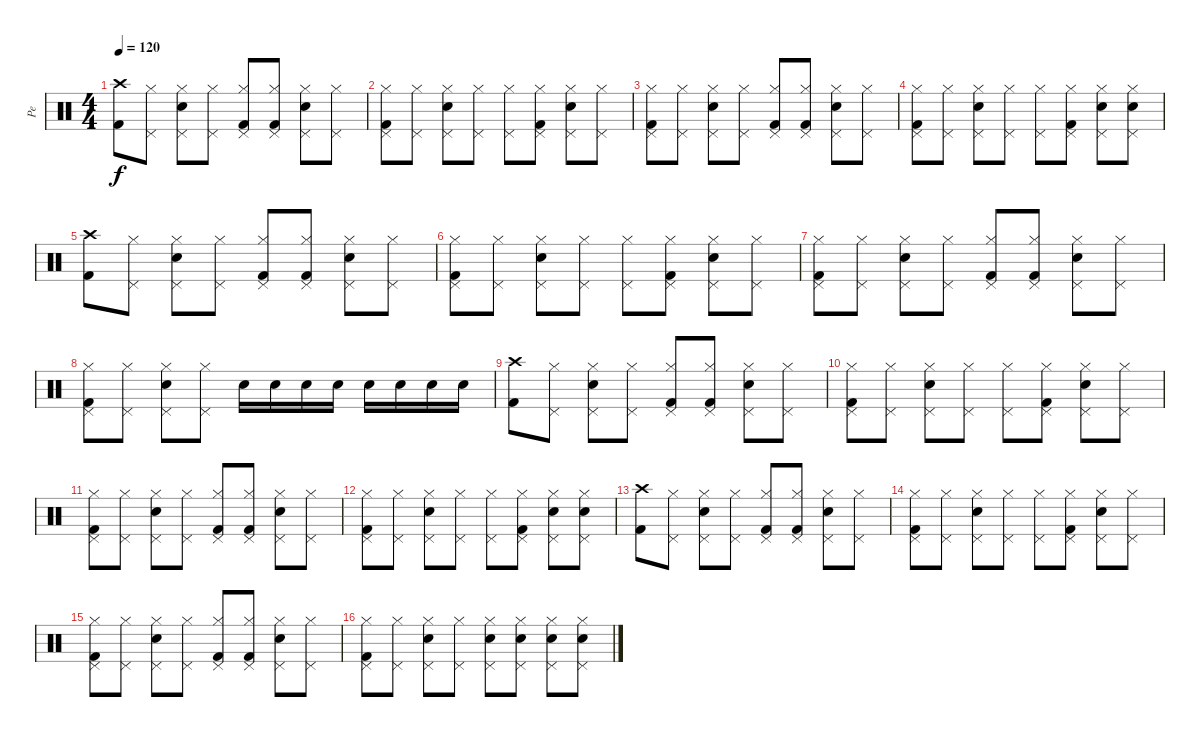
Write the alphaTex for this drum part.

\track ("Pe" "Pe") {instrument percussion}
\staff {score}
\articulation defaults
\ts (4 4)
\tempo 120
\clef neutral
\ks c
("Kick (hit) 2" "Crash high (hit)").8{dy f} ("Hi-Hat (closed)" "Pedal Hi-Hat (hit)").8 ("Snare (hit) 2" "Hi-Hat (closed)" "Pedal Hi-Hat (hit)").8 ("Hi-Hat (closed)" "Pedal Hi-Hat (hit)").8 ("Kick (hit) 2" "Hi-Hat (closed)" "Pedal Hi-Hat (hit)").8 ("Kick (hit) 2" "Hi-Hat (closed)" "Pedal Hi-Hat (hit)").8 ("Snare (hit) 2" "Hi-Hat (closed)" "Pedal Hi-Hat (hit)").8 ("Hi-Hat (closed)" "Pedal Hi-Hat (hit)").8 |
("Kick (hit) 2" "Hi-Hat (closed)" "Pedal Hi-Hat (hit)").8 ("Hi-Hat (closed)" "Pedal Hi-Hat (hit)").8 ("Snare (hit) 2" "Hi-Hat (closed)" "Pedal Hi-Hat (hit)").8 ("Hi-Hat (closed)" "Pedal Hi-Hat (hit)").8 ("Hi-Hat (closed)" "Pedal Hi-Hat (hit)").8 ("Kick (hit) 2" "Hi-Hat (closed)" "Pedal Hi-Hat (hit)").8 ("Snare (hit) 2" "Hi-Hat (closed)" "Pedal Hi-Hat (hit)").8 ("Hi-Hat (closed)" "Pedal Hi-Hat (hit)").8 |
("Kick (hit) 2" "Hi-Hat (closed)" "Pedal Hi-Hat (hit)").8 ("Hi-Hat (closed)" "Pedal Hi-Hat (hit)").8 ("Snare (hit) 2" "Hi-Hat (closed)" "Pedal Hi-Hat (hit)").8 ("Hi-Hat (closed)" "Pedal Hi-Hat (hit)").8 ("Kick (hit) 2" "Hi-Hat (closed)" "Pedal Hi-Hat (hit)").8 ("Kick (hit) 2" "Hi-Hat (closed)" "Pedal Hi-Hat (hit)").8 ("Snare (hit) 2" "Hi-Hat (closed)" "Pedal Hi-Hat (hit)").8 ("Hi-Hat (closed)" "Pedal Hi-Hat (hit)").8 |
("Kick (hit) 2" "Hi-Hat (closed)" "Pedal Hi-Hat (hit)").8 ("Hi-Hat (closed)" "Pedal Hi-Hat (hit)").8 ("Snare (hit) 2" "Hi-Hat (closed)" "Pedal Hi-Hat (hit)").8 ("Hi-Hat (closed)" "Pedal Hi-Hat (hit)").8 ("Hi-Hat (closed)" "Pedal Hi-Hat (hit)").8 ("Kick (hit) 2" "Hi-Hat (closed)" "Pedal Hi-Hat (hit)").8 ("Snare (hit) 2" "Hi-Hat (closed)" "Pedal Hi-Hat (hit)").8 ("Snare (hit) 2" "Hi-Hat (closed)" "Pedal Hi-Hat (hit)").8 |
("Kick (hit) 2" "Crash high (hit)").8 ("Hi-Hat (closed)" "Pedal Hi-Hat (hit)").8 ("Snare (hit) 2" "Hi-Hat (closed)" "Pedal Hi-Hat (hit)").8 ("Hi-Hat (closed)" "Pedal Hi-Hat (hit)").8 ("Kick (hit) 2" "Hi-Hat (closed)" "Pedal Hi-Hat (hit)").8 ("Kick (hit) 2" "Hi-Hat (closed)" "Pedal Hi-Hat (hit)").8 ("Snare (hit) 2" "Hi-Hat (closed)" "Pedal Hi-Hat (hit)").8 ("Hi-Hat (closed)" "Pedal Hi-Hat (hit)").8 |
("Kick (hit) 2" "Hi-Hat (closed)" "Pedal Hi-Hat (hit)").8 ("Hi-Hat (closed)" "Pedal Hi-Hat (hit)").8 ("Snare (hit) 2" "Hi-Hat (closed)" "Pedal Hi-Hat (hit)").8 ("Hi-Hat (closed)" "Pedal Hi-Hat (hit)").8 ("Hi-Hat (closed)" "Pedal Hi-Hat (hit)").8 ("Kick (hit) 2" "Hi-Hat (closed)" "Pedal Hi-Hat (hit)").8 ("Snare (hit) 2" "Hi-Hat (closed)" "Pedal Hi-Hat (hit)").8 ("Hi-Hat (closed)" "Pedal Hi-Hat (hit)").8 |
("Kick (hit) 2" "Hi-Hat (closed)" "Pedal Hi-Hat (hit)").8 ("Hi-Hat (closed)" "Pedal Hi-Hat (hit)").8 ("Snare (hit) 2" "Hi-Hat (closed)" "Pedal Hi-Hat (hit)").8 ("Hi-Hat (closed)" "Pedal Hi-Hat (hit)").8 ("Kick (hit) 2" "Hi-Hat (closed)" "Pedal Hi-Hat (hit)").8 ("Kick (hit) 2" "Hi-Hat (closed)" "Pedal Hi-Hat (hit)").8 ("Snare (hit) 2" "Hi-Hat (closed)" "Pedal Hi-Hat (hit)").8 ("Hi-Hat (closed)" "Pedal Hi-Hat (hit)").8 |
("Kick (hit) 2" "Hi-Hat (closed)" "Pedal Hi-Hat (hit)").8 ("Hi-Hat (closed)" "Pedal Hi-Hat (hit)").8 ("Snare (hit) 2" "Hi-Hat (closed)" "Pedal Hi-Hat (hit)").8 ("Hi-Hat (closed)" "Pedal Hi-Hat (hit)").8 "Snare (hit) 2".16 "Snare (hit) 2".16 "Snare (hit) 2".16 "Snare (hit) 2".16 "Snare (hit) 2".16 "Snare (hit) 2".16 "Snare (hit) 2".16 "Snare (hit) 2".16 |
("Kick (hit) 2" "Crash high (hit)").8 ("Hi-Hat (closed)" "Pedal Hi-Hat (hit)").8 ("Snare (hit) 2" "Hi-Hat (closed)" "Pedal Hi-Hat (hit)").8 ("Hi-Hat (closed)" "Pedal Hi-Hat (hit)").8 ("Kick (hit) 2" "Hi-Hat (closed)" "Pedal Hi-Hat (hit)").8 ("Kick (hit) 2" "Hi-Hat (closed)" "Pedal Hi-Hat (hit)").8 ("Snare (hit) 2" "Hi-Hat (closed)" "Pedal Hi-Hat (hit)").8 ("Hi-Hat (closed)" "Pedal Hi-Hat (hit)").8 |
("Kick (hit) 2" "Hi-Hat (closed)" "Pedal Hi-Hat (hit)").8 ("Hi-Hat (closed)" "Pedal Hi-Hat (hit)").8 ("Snare (hit) 2" "Hi-Hat (closed)" "Pedal Hi-Hat (hit)").8 ("Hi-Hat (closed)" "Pedal Hi-Hat (hit)").8 ("Hi-Hat (closed)" "Pedal Hi-Hat (hit)").8 ("Kick (hit) 2" "Hi-Hat (closed)" "Pedal Hi-Hat (hit)").8 ("Snare (hit) 2" "Hi-Hat (closed)" "Pedal Hi-Hat (hit)").8 ("Hi-Hat (closed)" "Pedal Hi-Hat (hit)").8 |
("Kick (hit) 2" "Hi-Hat (closed)" "Pedal Hi-Hat (hit)").8 ("Hi-Hat (closed)" "Pedal Hi-Hat (hit)").8 ("Snare (hit) 2" "Hi-Hat (closed)" "Pedal Hi-Hat (hit)").8 ("Hi-Hat (closed)" "Pedal Hi-Hat (hit)").8 ("Kick (hit) 2" "Hi-Hat (closed)" "Pedal Hi-Hat (hit)").8 ("Kick (hit) 2" "Hi-Hat (closed)" "Pedal Hi-Hat (hit)").8 ("Snare (hit) 2" "Hi-Hat (closed)" "Pedal Hi-Hat (hit)").8 ("Hi-Hat (closed)" "Pedal Hi-Hat (hit)").8 |
("Kick (hit) 2" "Hi-Hat (closed)" "Pedal Hi-Hat (hit)").8 ("Hi-Hat (closed)" "Pedal Hi-Hat (hit)").8 ("Snare (hit) 2" "Hi-Hat (closed)" "Pedal Hi-Hat (hit)").8 ("Hi-Hat (closed)" "Pedal Hi-Hat (hit)").8 ("Hi-Hat (closed)" "Pedal Hi-Hat (hit)").8 ("Kick (hit) 2" "Hi-Hat (closed)" "Pedal Hi-Hat (hit)").8 ("Snare (hit) 2" "Hi-Hat (closed)" "Pedal Hi-Hat (hit)").8 ("Snare (hit) 2" "Hi-Hat (closed)" "Pedal Hi-Hat (hit)").8 |
("Kick (hit) 2" "Crash high (hit)").8 ("Hi-Hat (closed)" "Pedal Hi-Hat (hit)").8 ("Snare (hit) 2" "Hi-Hat (closed)" "Pedal Hi-Hat (hit)").8 ("Hi-Hat (closed)" "Pedal Hi-Hat (hit)").8 ("Kick (hit) 2" "Hi-Hat (closed)" "Pedal Hi-Hat (hit)").8 ("Kick (hit) 2" "Hi-Hat (closed)" "Pedal Hi-Hat (hit)").8 ("Snare (hit) 2" "Hi-Hat (closed)" "Pedal Hi-Hat (hit)").8 ("Hi-Hat (closed)" "Pedal Hi-Hat (hit)").8 |
("Kick (hit) 2" "Hi-Hat (closed)" "Pedal Hi-Hat (hit)").8 ("Hi-Hat (closed)" "Pedal Hi-Hat (hit)").8 ("Snare (hit) 2" "Hi-Hat (closed)" "Pedal Hi-Hat (hit)").8 ("Hi-Hat (closed)" "Pedal Hi-Hat (hit)").8 ("Hi-Hat (closed)" "Pedal Hi-Hat (hit)").8 ("Kick (hit) 2" "Hi-Hat (closed)" "Pedal Hi-Hat (hit)").8 ("Snare (hit) 2" "Hi-Hat (closed)" "Pedal Hi-Hat (hit)").8 ("Hi-Hat (closed)" "Pedal Hi-Hat (hit)").8 |
("Kick (hit) 2" "Hi-Hat (closed)" "Pedal Hi-Hat (hit)").8 ("Hi-Hat (closed)" "Pedal Hi-Hat (hit)").8 ("Snare (hit) 2" "Hi-Hat (closed)" "Pedal Hi-Hat (hit)").8 ("Hi-Hat (closed)" "Pedal Hi-Hat (hit)").8 ("Kick (hit) 2" "Hi-Hat (closed)" "Pedal Hi-Hat (hit)").8 ("Kick (hit) 2" "Hi-Hat (closed)" "Pedal Hi-Hat (hit)").8 ("Snare (hit) 2" "Hi-Hat (closed)" "Pedal Hi-Hat (hit)").8 ("Hi-Hat (closed)" "Pedal Hi-Hat (hit)").8 |
("Kick (hit) 2" "Hi-Hat (closed)" "Pedal Hi-Hat (hit)").8 ("Hi-Hat (closed)" "Pedal Hi-Hat (hit)").8 ("Snare (hit) 2" "Hi-Hat (closed)" "Pedal Hi-Hat (hit)").8 ("Hi-Hat (closed)" "Pedal Hi-Hat (hit)").8 ("Snare (hit) 2" "Hi-Hat (closed)" "Pedal Hi-Hat (hit)").8 ("Snare (hit) 2" "Hi-Hat (closed)" "Pedal Hi-Hat (hit)").8 ("Snare (hit) 2" "Hi-Hat (closed)" "Pedal Hi-Hat (hit)").8 ("Snare (hit) 2" "Hi-Hat (closed)" "Pedal Hi-Hat (hit)").8
